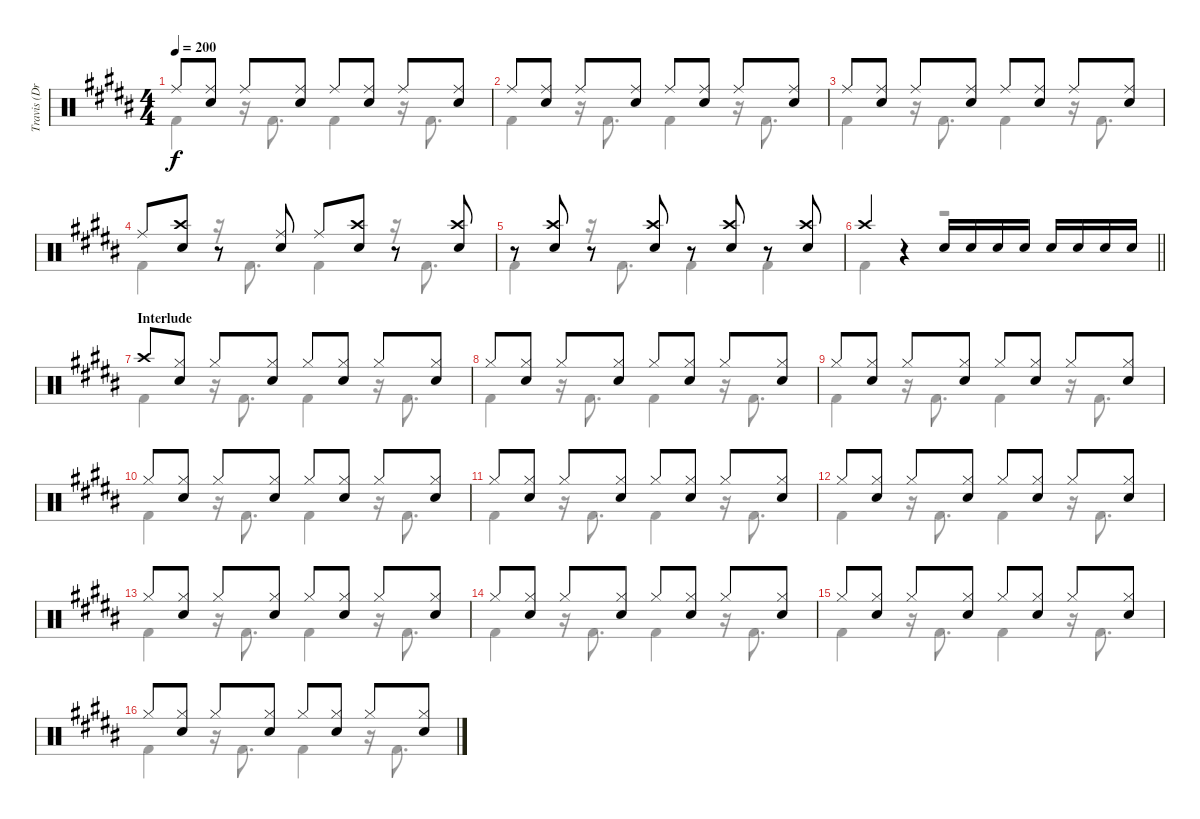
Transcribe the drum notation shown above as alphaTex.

\track ("Travis (Drums)" "Travis (Dr") {instrument percussion}
\staff {score}
\articulation defaults
\voice
\ts (4 4)
\tempo 200
\clef neutral
\ks b "Ride (middle)".8{dy f}
("Ride (middle)" "Electric Snare (hit)").8 "Ride (middle)".8 ("Ride (middle)" "Electric Snare (hit)").8 "Ride (middle)".8 ("Ride (middle)" "Electric Snare (hit)").8 "Ride (middle)".8 ("Ride (middle)" "Electric Snare (hit)").8 |
"Ride (middle)".8 ("Ride (middle)" "Electric Snare (hit)").8 "Ride (middle)".8 ("Ride (middle)" "Electric Snare (hit)").8 "Ride (middle)".8 ("Ride (middle)" "Electric Snare (hit)").8 "Ride (middle)".8 ("Ride (middle)" "Electric Snare (hit)").8 |
"Ride (middle)".8 ("Ride (middle)" "Electric Snare (hit)").8 "Ride (middle)".8 ("Ride (middle)" "Electric Snare (hit)").8 "Ride (middle)".8 ("Ride (middle)" "Electric Snare (hit)").8 "Ride (middle)".8 ("Ride (middle)" "Electric Snare (hit)").8 |
"Ride (middle)".8 ("Crash high (hit)" "Electric Snare (hit)").8 r.8 ("Ride (middle)" "Electric Snare (hit)").8 "Ride (middle)".8 ("Crash high (hit)" "Electric Snare (hit)").8 r.8 ("Crash high (hit)" "Electric Snare (hit)").8 |
r.8 ("Crash high (hit)" "Electric Snare (hit)").8 r.8 ("Crash high (hit)" "Electric Snare (hit)").8 r.8 ("Crash high (hit)" "Electric Snare (hit)").8 r.8 ("Crash high (hit)" "Electric Snare (hit)").8 |
\barLineRight lightlight "Crash high (hit)".4
r.4 "Electric Snare (hit)".16 "Electric Snare (hit)".16 "Electric Snare (hit)".16 "Electric Snare (hit)".16 "Electric Snare (hit)".16 "Electric Snare (hit)".16 "Electric Snare (hit)".16 "Electric Snare (hit)".16 |
\section ("" "Interlude")
"Crash high (hit)".8 ("Electric Snare (hit)" "Hi-Hat (closed)").8 "Hi-Hat (closed)".8 ("Electric Snare (hit)" "Hi-Hat (closed)").8 "Hi-Hat (closed)".8 ("Electric Snare (hit)" "Hi-Hat (closed)").8 "Hi-Hat (closed)".8 ("Electric Snare (hit)" "Hi-Hat (closed)").8 |
"Hi-Hat (closed)".8 ("Electric Snare (hit)" "Hi-Hat (closed)").8 "Hi-Hat (closed)".8 ("Electric Snare (hit)" "Hi-Hat (closed)").8 "Hi-Hat (closed)".8 ("Electric Snare (hit)" "Hi-Hat (closed)").8 "Hi-Hat (closed)".8 ("Electric Snare (hit)" "Hi-Hat (closed)").8 |
"Hi-Hat (closed)".8 ("Electric Snare (hit)" "Hi-Hat (closed)").8 "Hi-Hat (closed)".8 ("Electric Snare (hit)" "Hi-Hat (closed)").8 "Hi-Hat (closed)".8 ("Electric Snare (hit)" "Hi-Hat (closed)").8 "Hi-Hat (closed)".8 ("Electric Snare (hit)" "Hi-Hat (closed)").8 |
"Hi-Hat (closed)".8 ("Electric Snare (hit)" "Hi-Hat (closed)").8 "Hi-Hat (closed)".8 ("Electric Snare (hit)" "Hi-Hat (closed)").8 "Hi-Hat (closed)".8 ("Electric Snare (hit)" "Hi-Hat (closed)").8 "Hi-Hat (closed)".8 ("Electric Snare (hit)" "Hi-Hat (closed)").8 |
"Hi-Hat (closed)".8 ("Electric Snare (hit)" "Hi-Hat (closed)").8 "Hi-Hat (closed)".8 ("Electric Snare (hit)" "Hi-Hat (closed)").8 "Hi-Hat (closed)".8 ("Electric Snare (hit)" "Hi-Hat (closed)").8 "Hi-Hat (closed)".8 ("Electric Snare (hit)" "Hi-Hat (closed)").8 |
"Hi-Hat (closed)".8 ("Electric Snare (hit)" "Hi-Hat (closed)").8 "Hi-Hat (closed)".8 ("Electric Snare (hit)" "Hi-Hat (closed)").8 "Hi-Hat (closed)".8 ("Electric Snare (hit)" "Hi-Hat (closed)").8 "Hi-Hat (closed)".8 ("Electric Snare (hit)" "Hi-Hat (closed)").8 |
"Hi-Hat (closed)".8 ("Electric Snare (hit)" "Hi-Hat (closed)").8 "Hi-Hat (closed)".8 ("Electric Snare (hit)" "Hi-Hat (closed)").8 "Hi-Hat (closed)".8 ("Electric Snare (hit)" "Hi-Hat (closed)").8 "Hi-Hat (closed)".8 ("Electric Snare (hit)" "Hi-Hat (closed)").8 |
"Hi-Hat (closed)".8 ("Electric Snare (hit)" "Hi-Hat (closed)").8 "Hi-Hat (closed)".8 ("Electric Snare (hit)" "Hi-Hat (closed)").8 "Hi-Hat (closed)".8 ("Electric Snare (hit)" "Hi-Hat (closed)").8 "Hi-Hat (closed)".8 ("Electric Snare (hit)" "Hi-Hat (closed)").8 |
"Hi-Hat (closed)".8 ("Electric Snare (hit)" "Hi-Hat (closed)").8 "Hi-Hat (closed)".8 ("Electric Snare (hit)" "Hi-Hat (closed)").8 "Hi-Hat (closed)".8 ("Electric Snare (hit)" "Hi-Hat (closed)").8 "Hi-Hat (closed)".8 ("Electric Snare (hit)" "Hi-Hat (closed)").8 |
"Hi-Hat (closed)".8 ("Electric Snare (hit)" "Hi-Hat (closed)").8 "Hi-Hat (closed)".8 ("Electric Snare (hit)" "Hi-Hat (closed)").8 "Hi-Hat (closed)".8 ("Electric Snare (hit)" "Hi-Hat (closed)").8 "Hi-Hat (closed)".8 ("Electric Snare (hit)" "Hi-Hat (closed)").8
\voice
\clef neutral
\ottava regular
\simile none
\ks b "Kick (hit) 2".4{dy f}
r.16 "Kick (hit) 2".8{d} "Kick (hit) 2".4 r.16 "Kick (hit) 2".8{d} |
"Kick (hit) 2".4 r.16 "Kick (hit) 2".8{d} "Kick (hit) 2".4 r.16 "Kick (hit) 2".8{d} |
"Kick (hit) 2".4 r.16 "Kick (hit) 2".8{d} "Kick (hit) 2".4 r.16 "Kick (hit) 2".8{d} |
"Kick (hit) 2".4 r.16 "Kick (hit) 2".8{d} "Kick (hit) 2".4 r.16 "Kick (hit) 2".8{d} |
"Kick (hit) 2".4 r.16 "Kick (hit) 2".8{d} "Kick (hit) 2".4 "Kick (hit) 2".4 |
\barLineRight lightlight "Kick (hit) 2".4
r.4 r.2 |
"Kick (hit) 2".4 r.16 "Kick (hit) 2".8{d} "Kick (hit) 2".4 r.16 "Kick (hit) 2".8{d} |
"Kick (hit) 2".4 r.16 "Kick (hit) 2".8{d} "Kick (hit) 2".4 r.16 "Kick (hit) 2".8{d} |
"Kick (hit) 2".4 r.16 "Kick (hit) 2".8{d} "Kick (hit) 2".4 r.16 "Kick (hit) 2".8{d} |
"Kick (hit) 2".4 r.16 "Kick (hit) 2".8{d} "Kick (hit) 2".4 r.16 "Kick (hit) 2".8{d} |
"Kick (hit) 2".4 r.16 "Kick (hit) 2".8{d} "Kick (hit) 2".4 r.16 "Kick (hit) 2".8{d} |
"Kick (hit) 2".4 r.16 "Kick (hit) 2".8{d} "Kick (hit) 2".4 r.16 "Kick (hit) 2".8{d} |
"Kick (hit) 2".4 r.16 "Kick (hit) 2".8{d} "Kick (hit) 2".4 r.16 "Kick (hit) 2".8{d} |
"Kick (hit) 2".4 r.16 "Kick (hit) 2".8{d} "Kick (hit) 2".4 r.16 "Kick (hit) 2".8{d} |
"Kick (hit) 2".4 r.16 "Kick (hit) 2".8{d} "Kick (hit) 2".4 r.16 "Kick (hit) 2".8{d} |
"Kick (hit) 2".4 r.16 "Kick (hit) 2".8{d} "Kick (hit) 2".4 r.16 "Kick (hit) 2".8{d}
